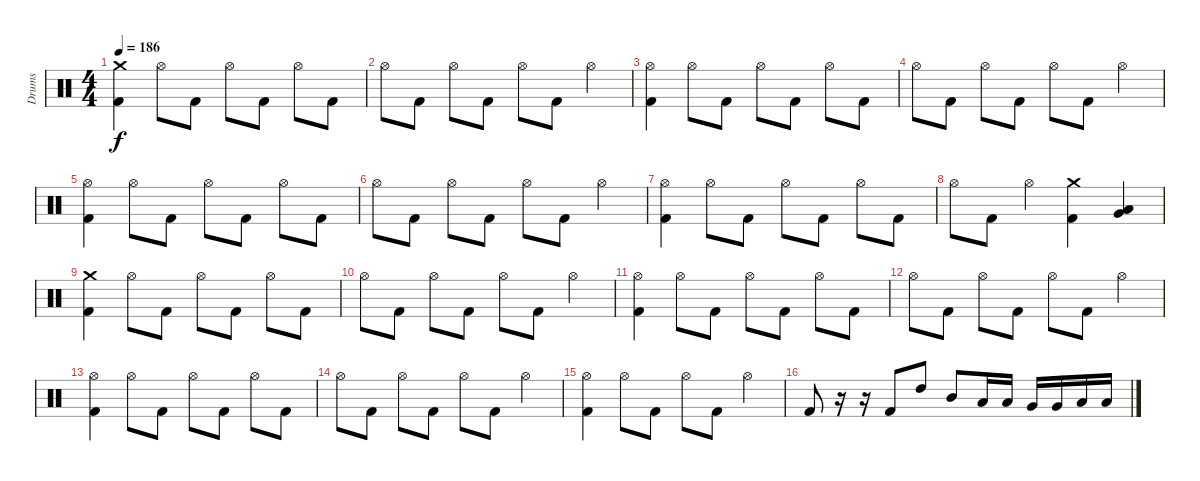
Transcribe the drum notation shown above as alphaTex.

\track ("Drums" "Drums") {instrument percussion}
\staff {score}
\articulation defaults
\ts (4 4)
\tempo 186
\clef neutral
\ks c
("Crash medium (hit)" "Kick (hit) 2").4{dy f} "Hi-Hat (open)".8 "Kick (hit) 2".8 "Hi-Hat (open)".8 "Kick (hit) 2".8 "Hi-Hat (open)".8 "Kick (hit) 2".8 |
"Hi-Hat (open)".8 "Kick (hit) 2".8 "Hi-Hat (open)".8 "Kick (hit) 2".8 "Hi-Hat (open)".8 "Kick (hit) 2".8 "Hi-Hat (open)".4 |
("Hi-Hat (open)" "Kick (hit) 2").4 "Hi-Hat (open)".8 "Kick (hit) 2".8 "Hi-Hat (open)".8 "Kick (hit) 2".8 "Hi-Hat (open)".8 "Kick (hit) 2".8 |
"Hi-Hat (open)".8 "Kick (hit) 2".8 "Hi-Hat (open)".8 "Kick (hit) 2".8 "Hi-Hat (open)".8 "Kick (hit) 2".8 "Hi-Hat (open)".4 |
("Hi-Hat (open)" "Kick (hit) 2").4 "Hi-Hat (open)".8 "Kick (hit) 2".8 "Hi-Hat (open)".8 "Kick (hit) 2".8 "Hi-Hat (open)".8 "Kick (hit) 2".8 |
"Hi-Hat (open)".8 "Kick (hit) 2".8 "Hi-Hat (open)".8 "Kick (hit) 2".8 "Hi-Hat (open)".8 "Kick (hit) 2".8 "Hi-Hat (open)".4 |
("Hi-Hat (open)" "Kick (hit) 2").4 "Hi-Hat (open)".8 "Kick (hit) 2".8 "Hi-Hat (open)".8 "Kick (hit) 2".8 "Hi-Hat (open)".8 "Kick (hit) 2".8 |
"Hi-Hat (open)".8 "Kick (hit) 2".8 "Hi-Hat (open)".4 ("Crash medium (hit)" "Kick (hit) 2").4 ("Very Low Tom (hit)" "Low Tom (hit)").4 |
("Crash medium (hit)" "Kick (hit) 2").4 "Hi-Hat (open)".8 "Kick (hit) 2".8 "Hi-Hat (open)".8 "Kick (hit) 2".8 "Hi-Hat (open)".8 "Kick (hit) 2".8 |
"Hi-Hat (open)".8 "Kick (hit) 2".8 "Hi-Hat (open)".8 "Kick (hit) 2".8 "Hi-Hat (open)".8 "Kick (hit) 2".8 "Hi-Hat (open)".4 |
("Hi-Hat (open)" "Kick (hit) 2").4 "Hi-Hat (open)".8 "Kick (hit) 2".8 "Hi-Hat (open)".8 "Kick (hit) 2".8 "Hi-Hat (open)".8 "Kick (hit) 2".8 |
"Hi-Hat (open)".8 "Kick (hit) 2".8 "Hi-Hat (open)".8 "Kick (hit) 2".8 "Hi-Hat (open)".8 "Kick (hit) 2".8 "Hi-Hat (open)".4 |
("Hi-Hat (open)" "Kick (hit) 2").4 "Hi-Hat (open)".8 "Kick (hit) 2".8 "Hi-Hat (open)".8 "Kick (hit) 2".8 "Hi-Hat (open)".8 "Kick (hit) 2".8 |
"Hi-Hat (open)".8 "Kick (hit) 2".8 "Hi-Hat (open)".8 "Kick (hit) 2".8 "Hi-Hat (open)".8 "Kick (hit) 2".8 "Hi-Hat (open)".4 |
("Hi-Hat (open)" "Kick (hit) 2").4 "Hi-Hat (open)".8 "Kick (hit) 2".8 "Hi-Hat (open)".8 "Kick (hit) 2".8 "Hi-Hat (open)".4 |
"Kick (hit) 2".8 r.16 r.16 "Kick (hit) 2".8 "High Tom (hit)".8 "Mid Tom (hit)".8 "Low Tom (hit)".16 "Low Tom (hit)".16 "Very Low Tom (hit)".16 "Very Low Tom (hit)".16 "Low Floor Tom (hit)".16 "Low Floor Tom (hit)".16
